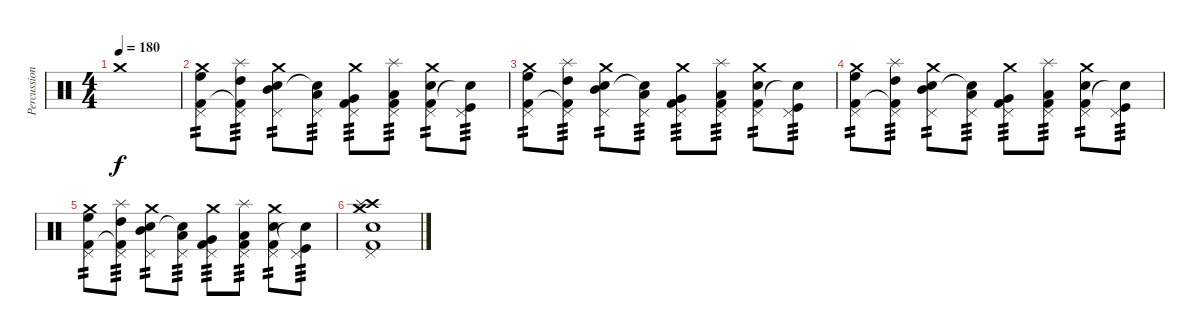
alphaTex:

\track ("Percussion" "Percussion") {instrument percussion}
\staff
\articulation defaults
\ts (4 4)
\tempo 180
\clef neutral
\ks c "Crash medium (hit)".1{dy f}
|
("Pedal Hi-Hat (hit)" "Crash medium (hit)" "High Floor Tom (hit)" "Kick (hit) 2").8{tp 2} ("Pedal Hi-Hat (hit)" "Splash (hit)" "High Tom (hit)" "Kick (hit) 2"{t}).8{tp 3} ("Pedal Hi-Hat (hit)" "Crash medium (hit)" "Mid Tom (hit)" "Snare (hit) 2").8{tp 2} ("Pedal Hi-Hat (hit)" "Low Tom (hit)" "Snare (hit) 2"{t}).8{tp 3} ("Pedal Hi-Hat (hit)" "Crash medium (hit)" "Very Low Tom (hit)" "Kick (hit) 2").8{tp 3} ("Pedal Hi-Hat (hit)" "Splash (hit)" "Low Floor Tom (hit)" "Kick (hit) 2").8{tp 3} ("Pedal Hi-Hat (hit)" "Crash medium (hit)" "Kick (hit) 2" "Snare (hit) 2").8{tp 2} ("Pedal Hi-Hat (hit)" "Kick (hit)" "Snare (hit) 2"{t}).8{tp 3} |
("Pedal Hi-Hat (hit)" "Crash medium (hit)" "High Floor Tom (hit)" "Kick (hit) 2").8{tp 2} ("Pedal Hi-Hat (hit)" "Splash (hit)" "High Tom (hit)" "Kick (hit) 2"{t}).8{tp 3} ("Pedal Hi-Hat (hit)" "Crash medium (hit)" "Mid Tom (hit)" "Snare (hit) 2").8{tp 2} ("Pedal Hi-Hat (hit)" "Low Tom (hit)" "Snare (hit) 2"{t}).8{tp 3} ("Pedal Hi-Hat (hit)" "Crash medium (hit)" "Very Low Tom (hit)" "Kick (hit) 2").8{tp 3} ("Pedal Hi-Hat (hit)" "Splash (hit)" "Low Floor Tom (hit)" "Kick (hit) 2").8{tp 3} ("Pedal Hi-Hat (hit)" "Crash medium (hit)" "Kick (hit) 2" "Snare (hit) 2").8{tp 2} ("Pedal Hi-Hat (hit)" "Kick (hit)" "Snare (hit) 2"{t}).8{tp 3} |
("Pedal Hi-Hat (hit)" "Crash medium (hit)" "High Floor Tom (hit)" "Kick (hit) 2").8{tp 2} ("Pedal Hi-Hat (hit)" "Splash (hit)" "High Tom (hit)" "Kick (hit) 2"{t}).8{tp 3} ("Pedal Hi-Hat (hit)" "Crash medium (hit)" "Mid Tom (hit)" "Snare (hit) 2").8{tp 2} ("Pedal Hi-Hat (hit)" "Low Tom (hit)" "Snare (hit) 2"{t}).8{tp 3} ("Pedal Hi-Hat (hit)" "Crash medium (hit)" "Very Low Tom (hit)" "Kick (hit) 2").8{tp 3} ("Pedal Hi-Hat (hit)" "Splash (hit)" "Low Floor Tom (hit)" "Kick (hit) 2").8{tp 3} ("Pedal Hi-Hat (hit)" "Crash medium (hit)" "Kick (hit) 2" "Snare (hit) 2").8{tp 2} ("Pedal Hi-Hat (hit)" "Kick (hit)" "Snare (hit) 2"{t}).8{tp 3} |
("Pedal Hi-Hat (hit)" "Crash medium (hit)" "High Floor Tom (hit)" "Kick (hit) 2").8{tp 2} ("Pedal Hi-Hat (hit)" "Splash (hit)" "High Tom (hit)" "Kick (hit) 2"{t}).8{tp 3} ("Pedal Hi-Hat (hit)" "Crash medium (hit)" "Mid Tom (hit)" "Snare (hit) 2").8{tp 2} ("Pedal Hi-Hat (hit)" "Low Tom (hit)" "Snare (hit) 2"{t}).8{tp 3} ("Pedal Hi-Hat (hit)" "Crash medium (hit)" "Very Low Tom (hit)" "Kick (hit) 2").8{tp 3} ("Pedal Hi-Hat (hit)" "Splash (hit)" "Low Floor Tom (hit)" "Kick (hit) 2").8{tp 3} ("Pedal Hi-Hat (hit)" "Crash medium (hit)" "Kick (hit) 2" "Snare (hit) 2").8{tp 2} ("Pedal Hi-Hat (hit)" "Kick (hit)" "Snare (hit) 2"{t}).8{tp 3} |
("Pedal Hi-Hat (hit)" "Crash high (hit)" "Crash medium (hit)" "Splash (hit)" "Snare (hit) 2" "Kick (hit) 2").1
